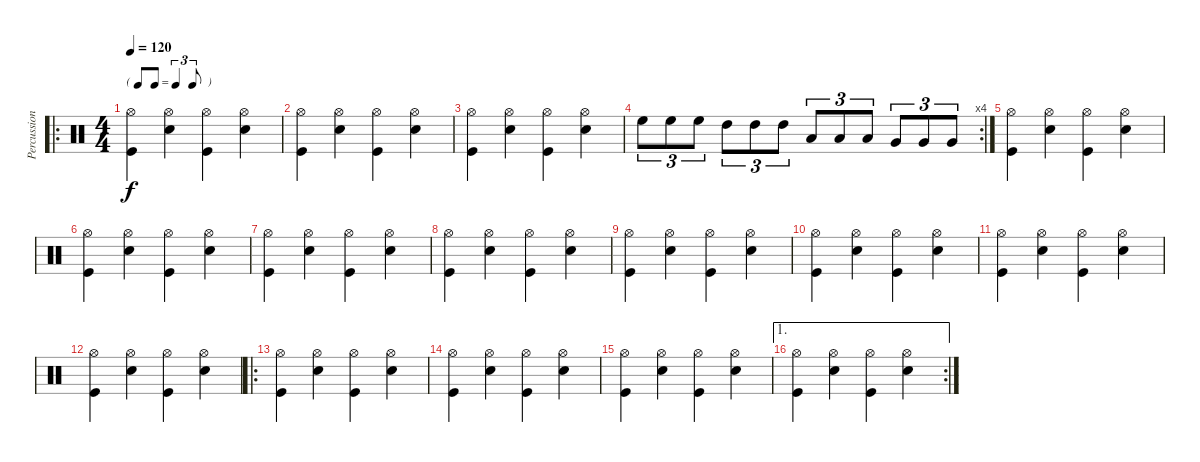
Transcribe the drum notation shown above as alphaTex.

\track ("Percussion" "Percussion") {instrument percussion}
\staff {score}
\articulation defaults
\ro
\ts (4 4)
\tf triplet8th
\tempo 120
\clef neutral
\ks c
("Hi-Hat (open)" "Kick (hit)").4{dy f} ("Hi-Hat (open)" "Snare (hit) 2").4 ("Hi-Hat (open)" "Kick (hit)").4 ("Hi-Hat (open)" "Snare (hit) 2").4 |
("Hi-Hat (open)" "Kick (hit)").4 ("Hi-Hat (open)" "Snare (hit) 2").4 ("Hi-Hat (open)" "Kick (hit)").4 ("Hi-Hat (open)" "Snare (hit) 2").4 |
("Hi-Hat (open)" "Kick (hit)").4 ("Hi-Hat (open)" "Snare (hit) 2").4 ("Hi-Hat (open)" "Kick (hit)").4 ("Hi-Hat (open)" "Snare (hit) 2").4 |
\rc 4 "High Floor Tom (hit)".8{tu (3 2)} "High Floor Tom (hit)".8{tu (3 2)} "High Floor Tom (hit)".8{tu (3 2)} "High Tom (hit)".8{tu (3 2)} "High Tom (hit)".8{tu (3 2)} "High Tom (hit)".8{tu (3 2)} "Low Tom (hit)".8{tu (3 2)} "Low Tom (hit)".8{tu (3 2)} "Low Tom (hit)".8{tu (3 2)} "Very Low Tom (hit)".8{tu (3 2)} "Very Low Tom (hit)".8{tu (3 2)} "Very Low Tom (hit)".8{tu (3 2)}
|
("Hi-Hat (open)" "Kick (hit)").4 ("Hi-Hat (open)" "Snare (hit) 2").4 ("Hi-Hat (open)" "Kick (hit)").4 ("Hi-Hat (open)" "Snare (hit) 2").4 |
("Hi-Hat (open)" "Kick (hit)").4 ("Hi-Hat (open)" "Snare (hit) 2").4 ("Hi-Hat (open)" "Kick (hit)").4 ("Hi-Hat (open)" "Snare (hit) 2").4 |
("Hi-Hat (open)" "Kick (hit)").4 ("Hi-Hat (open)" "Snare (hit) 2").4 ("Hi-Hat (open)" "Kick (hit)").4 ("Hi-Hat (open)" "Snare (hit) 2").4 |
("Hi-Hat (open)" "Kick (hit)").4 ("Hi-Hat (open)" "Snare (hit) 2").4 ("Hi-Hat (open)" "Kick (hit)").4 ("Hi-Hat (open)" "Snare (hit) 2").4 |
("Hi-Hat (open)" "Kick (hit)").4 ("Hi-Hat (open)" "Snare (hit) 2").4 ("Hi-Hat (open)" "Kick (hit)").4 ("Hi-Hat (open)" "Snare (hit) 2").4 |
("Hi-Hat (open)" "Kick (hit)").4 ("Hi-Hat (open)" "Snare (hit) 2").4 ("Hi-Hat (open)" "Kick (hit)").4 ("Hi-Hat (open)" "Snare (hit) 2").4 |
("Hi-Hat (open)" "Kick (hit)").4 ("Hi-Hat (open)" "Snare (hit) 2").4 ("Hi-Hat (open)" "Kick (hit)").4 ("Hi-Hat (open)" "Snare (hit) 2").4 |
("Hi-Hat (open)" "Kick (hit)").4 ("Hi-Hat (open)" "Snare (hit) 2").4 ("Hi-Hat (open)" "Kick (hit)").4 ("Hi-Hat (open)" "Snare (hit) 2").4 |
\ro
("Hi-Hat (open)" "Kick (hit)").4 ("Hi-Hat (open)" "Snare (hit) 2").4 ("Hi-Hat (open)" "Kick (hit)").4 ("Hi-Hat (open)" "Snare (hit) 2").4 |
("Hi-Hat (open)" "Kick (hit)").4 ("Hi-Hat (open)" "Snare (hit) 2").4 ("Hi-Hat (open)" "Kick (hit)").4 ("Hi-Hat (open)" "Snare (hit) 2").4 |
("Hi-Hat (open)" "Kick (hit)").4 ("Hi-Hat (open)" "Snare (hit) 2").4 ("Hi-Hat (open)" "Kick (hit)").4 ("Hi-Hat (open)" "Snare (hit) 2").4 |
\ae 1
\rc 2
("Hi-Hat (open)" "Kick (hit)").4 ("Hi-Hat (open)" "Snare (hit) 2").4 ("Hi-Hat (open)" "Kick (hit)").4 ("Hi-Hat (open)" "Snare (hit) 2").4
